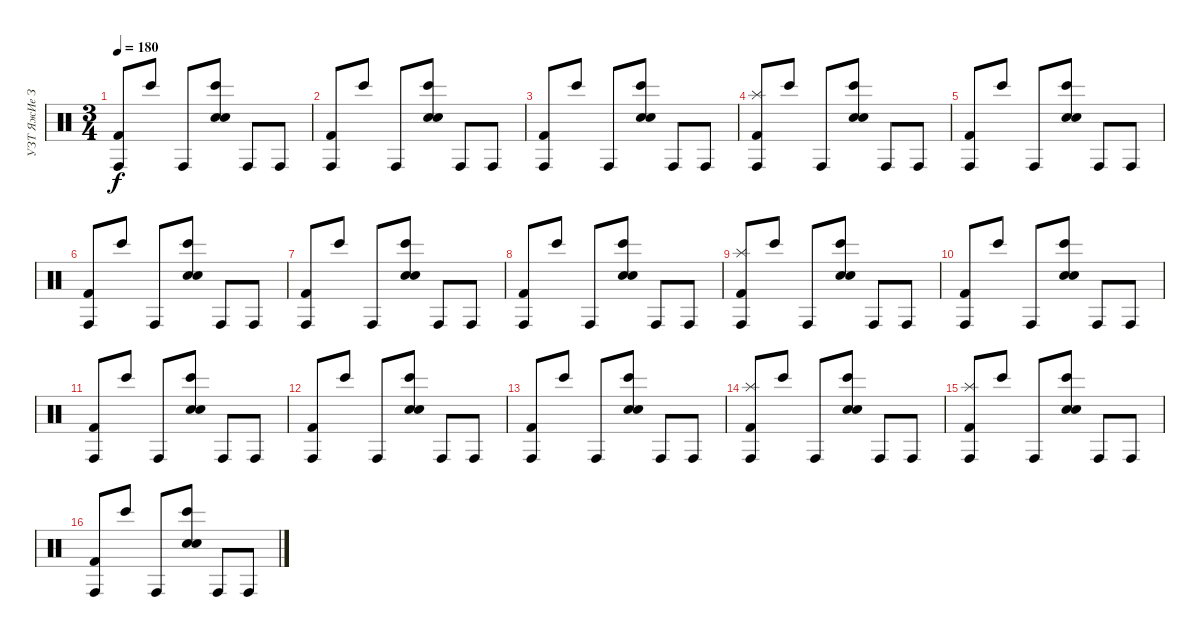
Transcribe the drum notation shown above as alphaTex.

\track ("УЗТ ЯжИе Зн" "УЗТ ЯжИе З") {instrument percussion}
\staff {score}
\articulation defaults
\ts (3 4)
\tempo 180
\clef neutral
\ks c
("Conga high (hit)" "Kick (hit) 2").8{dy f} "Bongo High (hit)".8 "Conga high (hit)".8 ("Bongo High (hit)" "Snare (hit) 2" "Hand Clap (hit)").8 "Conga high (hit)".8 "Conga high (hit)".8 |
("Conga high (hit)" "Kick (hit) 2").8 "Bongo High (hit)".8 "Conga high (hit)".8 ("Bongo High (hit)" "Snare (hit) 2" "Hand Clap (hit)").8 "Conga high (hit)".8 "Conga high (hit)".8 |
("Conga high (hit)" "Kick (hit) 2").8 "Bongo High (hit)".8 "Conga high (hit)".8 ("Bongo High (hit)" "Snare (hit) 2" "Hand Clap (hit)").8 "Conga high (hit)".8 "Conga high (hit)".8 |
("Conga high (hit)" "Kick (hit) 2" "Splash (hit)").8 "Bongo High (hit)".8 "Conga high (hit)".8 ("Bongo High (hit)" "Snare (hit) 2" "Hand Clap (hit)").8 "Conga high (hit)".8 "Conga high (hit)".8 |
("Conga high (hit)" "Kick (hit) 2").8 "Bongo High (hit)".8 "Conga high (hit)".8 ("Bongo High (hit)" "Snare (hit) 2" "Hand Clap (hit)").8 "Conga high (hit)".8 "Conga high (hit)".8 |
("Conga high (hit)" "Kick (hit) 2").8 "Bongo High (hit)".8 "Conga high (hit)".8 ("Bongo High (hit)" "Snare (hit) 2" "Hand Clap (hit)").8 "Conga high (hit)".8 "Conga high (hit)".8 |
("Conga high (hit)" "Kick (hit) 2").8 "Bongo High (hit)".8 "Conga high (hit)".8 ("Bongo High (hit)" "Snare (hit) 2" "Hand Clap (hit)").8 "Conga high (hit)".8 "Conga high (hit)".8 |
("Conga high (hit)" "Kick (hit) 2").8 "Bongo High (hit)".8 "Conga high (hit)".8 ("Bongo High (hit)" "Snare (hit) 2" "Hand Clap (hit)").8 "Conga high (hit)".8 "Conga high (hit)".8 |
("Conga high (hit)" "Kick (hit) 2" "Splash (hit)").8 "Bongo High (hit)".8 "Conga high (hit)".8 ("Bongo High (hit)" "Snare (hit) 2" "Hand Clap (hit)").8 "Conga high (hit)".8 "Conga high (hit)".8 |
("Conga high (hit)" "Kick (hit) 2").8 "Bongo High (hit)".8 "Conga high (hit)".8 ("Bongo High (hit)" "Snare (hit) 2" "Hand Clap (hit)").8 "Conga high (hit)".8 "Conga high (hit)".8 |
("Conga high (hit)" "Kick (hit) 2").8 "Bongo High (hit)".8 "Conga high (hit)".8 ("Bongo High (hit)" "Snare (hit) 2" "Hand Clap (hit)").8 "Conga high (hit)".8 "Conga high (hit)".8 |
("Conga high (hit)" "Kick (hit) 2").8 "Bongo High (hit)".8 "Conga high (hit)".8 ("Bongo High (hit)" "Snare (hit) 2" "Hand Clap (hit)").8 "Conga high (hit)".8 "Conga high (hit)".8 |
("Conga high (hit)" "Kick (hit) 2").8 "Bongo High (hit)".8 "Conga high (hit)".8 ("Bongo High (hit)" "Snare (hit) 2" "Hand Clap (hit)").8 "Conga high (hit)".8 "Conga high (hit)".8 |
("Conga high (hit)" "Kick (hit) 2" "Splash (hit)").8 "Bongo High (hit)".8 "Conga high (hit)".8 ("Bongo High (hit)" "Snare (hit) 2" "Hand Clap (hit)").8 "Conga high (hit)".8 "Conga high (hit)".8 |
("Conga high (hit)" "Kick (hit) 2" "Splash (hit)").8 "Bongo High (hit)".8 "Conga high (hit)".8 ("Bongo High (hit)" "Snare (hit) 2" "Hand Clap (hit)").8 "Conga high (hit)".8 "Conga high (hit)".8 |
("Conga high (hit)" "Kick (hit) 2").8 "Bongo High (hit)".8 "Conga high (hit)".8 ("Bongo High (hit)" "Snare (hit) 2" "Hand Clap (hit)").8 "Conga high (hit)".8 "Conga high (hit)".8
